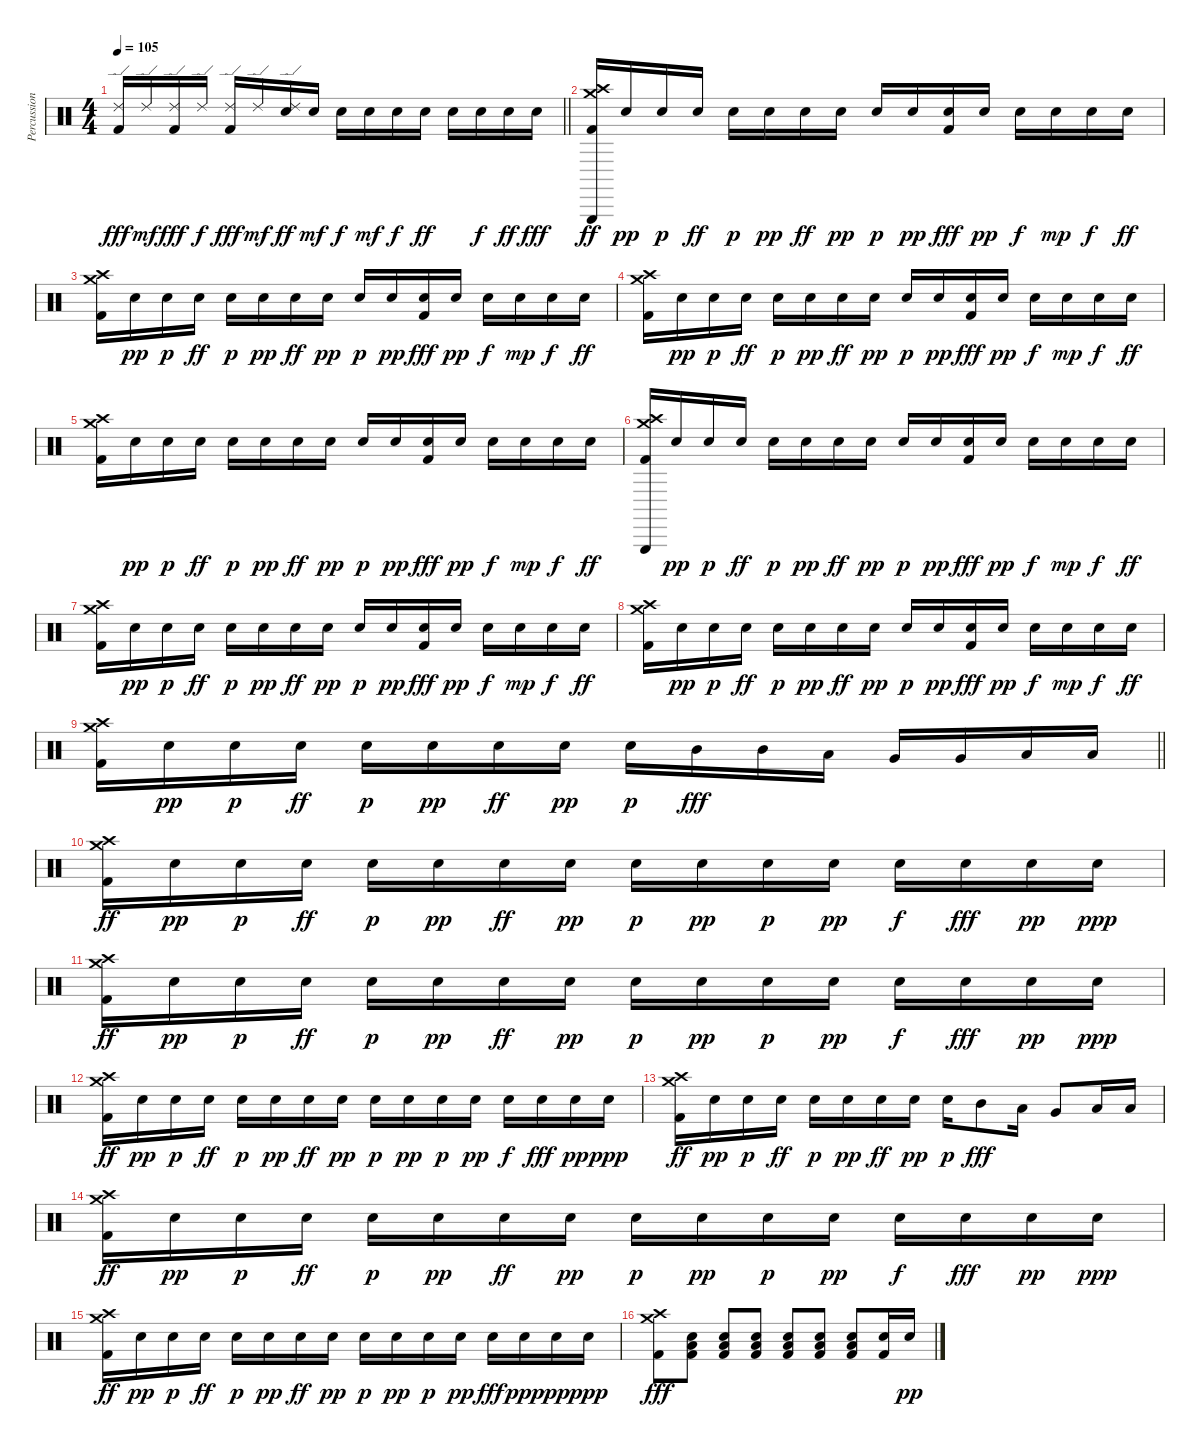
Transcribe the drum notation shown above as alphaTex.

\track ("Percussion" "Percussion") {instrument percussion}
\staff {score}
\articulation defaults
\ts (4 4)
\tempo 105
\clef neutral
\barLineRight lightlight
\ks c
("Ride (edge) 2" "Kick (hit) 2").16{dy fff} "Ride (edge) 2".16{dy mf} ("Ride (edge) 2" "Kick (hit) 2").16{dy fff} "Ride (edge) 2".16{dy f} ("Ride (edge) 2" "Kick (hit) 2").16{dy fff} "Ride (edge) 2".16{dy mf} ("Ride (edge) 2" "Electric Snare (hit)").16{dy ff} "Electric Snare (hit)".16{dy mf} "Electric Snare (hit)".16{dy f} "Electric Snare (hit)".16{dy mf} "Electric Snare (hit)".16{dy f} "Electric Snare (hit)".16{dy ff} "Electric Snare (hit)".16 "Electric Snare (hit)".16{dy f} "Electric Snare (hit)".16{dy ff} "Electric Snare (hit)".16{dy fff} |
("Crash high (hit)" "Crash medium (hit)" "Triangle (hit)" "Kick (hit) 2").16{dy ff} "Electric Snare (hit)".16{dy pp} "Electric Snare (hit)".16{dy p} "Electric Snare (hit)".16{dy ff} "Electric Snare (hit)".16{dy p} "Electric Snare (hit)".16{dy pp} "Electric Snare (hit)".16{dy ff} "Electric Snare (hit)".16{dy pp} "Electric Snare (hit)".16{dy p} "Electric Snare (hit)".16{dy pp} ("Electric Snare (hit)" "Kick (hit) 2").16{dy fff} "Electric Snare (hit)".16{dy pp} "Electric Snare (hit)".16{dy f} "Electric Snare (hit)".16{dy mp} "Electric Snare (hit)".16{dy f} "Electric Snare (hit)".16{dy ff} |
("Crash high (hit)" "Crash medium (hit)" "Kick (hit) 2").16 "Electric Snare (hit)".16{dy pp} "Electric Snare (hit)".16{dy p} "Electric Snare (hit)".16{dy ff} "Electric Snare (hit)".16{dy p} "Electric Snare (hit)".16{dy pp} "Electric Snare (hit)".16{dy ff} "Electric Snare (hit)".16{dy pp} "Electric Snare (hit)".16{dy p} "Electric Snare (hit)".16{dy pp} ("Electric Snare (hit)" "Kick (hit) 2").16{dy fff} "Electric Snare (hit)".16{dy pp} "Electric Snare (hit)".16{dy f} "Electric Snare (hit)".16{dy mp} "Electric Snare (hit)".16{dy f} "Electric Snare (hit)".16{dy ff} |
("Crash high (hit)" "Crash medium (hit)" "Kick (hit) 2").16 "Electric Snare (hit)".16{dy pp} "Electric Snare (hit)".16{dy p} "Electric Snare (hit)".16{dy ff} "Electric Snare (hit)".16{dy p} "Electric Snare (hit)".16{dy pp} "Electric Snare (hit)".16{dy ff} "Electric Snare (hit)".16{dy pp} "Electric Snare (hit)".16{dy p} "Electric Snare (hit)".16{dy pp} ("Electric Snare (hit)" "Kick (hit) 2").16{dy fff} "Electric Snare (hit)".16{dy pp} "Electric Snare (hit)".16{dy f} "Electric Snare (hit)".16{dy mp} "Electric Snare (hit)".16{dy f} "Electric Snare (hit)".16{dy ff} |
("Crash high (hit)" "Crash medium (hit)" "Kick (hit) 2").16 "Electric Snare (hit)".16{dy pp} "Electric Snare (hit)".16{dy p} "Electric Snare (hit)".16{dy ff} "Electric Snare (hit)".16{dy p} "Electric Snare (hit)".16{dy pp} "Electric Snare (hit)".16{dy ff} "Electric Snare (hit)".16{dy pp} "Electric Snare (hit)".16{dy p} "Electric Snare (hit)".16{dy pp} ("Electric Snare (hit)" "Kick (hit) 2").16{dy fff} "Electric Snare (hit)".16{dy pp} "Electric Snare (hit)".16{dy f} "Electric Snare (hit)".16{dy mp} "Electric Snare (hit)".16{dy f} "Electric Snare (hit)".16{dy ff} |
("Crash high (hit)" "Crash medium (hit)" "Triangle (hit)" "Kick (hit) 2").16 "Electric Snare (hit)".16{dy pp} "Electric Snare (hit)".16{dy p} "Electric Snare (hit)".16{dy ff} "Electric Snare (hit)".16{dy p} "Electric Snare (hit)".16{dy pp} "Electric Snare (hit)".16{dy ff} "Electric Snare (hit)".16{dy pp} "Electric Snare (hit)".16{dy p} "Electric Snare (hit)".16{dy pp} ("Electric Snare (hit)" "Kick (hit) 2").16{dy fff} "Electric Snare (hit)".16{dy pp} "Electric Snare (hit)".16{dy f} "Electric Snare (hit)".16{dy mp} "Electric Snare (hit)".16{dy f} "Electric Snare (hit)".16{dy ff} |
("Crash high (hit)" "Crash medium (hit)" "Kick (hit) 2").16 "Electric Snare (hit)".16{dy pp} "Electric Snare (hit)".16{dy p} "Electric Snare (hit)".16{dy ff} "Electric Snare (hit)".16{dy p} "Electric Snare (hit)".16{dy pp} "Electric Snare (hit)".16{dy ff} "Electric Snare (hit)".16{dy pp} "Electric Snare (hit)".16{dy p} "Electric Snare (hit)".16{dy pp} ("Electric Snare (hit)" "Kick (hit) 2").16{dy fff} "Electric Snare (hit)".16{dy pp} "Electric Snare (hit)".16{dy f} "Electric Snare (hit)".16{dy mp} "Electric Snare (hit)".16{dy f} "Electric Snare (hit)".16{dy ff} |
("Crash high (hit)" "Crash medium (hit)" "Kick (hit) 2").16 "Electric Snare (hit)".16{dy pp} "Electric Snare (hit)".16{dy p} "Electric Snare (hit)".16{dy ff} "Electric Snare (hit)".16{dy p} "Electric Snare (hit)".16{dy pp} "Electric Snare (hit)".16{dy ff} "Electric Snare (hit)".16{dy pp} "Electric Snare (hit)".16{dy p} "Electric Snare (hit)".16{dy pp} ("Electric Snare (hit)" "Kick (hit) 2").16{dy fff} "Electric Snare (hit)".16{dy pp} "Electric Snare (hit)".16{dy f} "Electric Snare (hit)".16{dy mp} "Electric Snare (hit)".16{dy f} "Electric Snare (hit)".16{dy ff} |
\barLineRight lightlight
("Crash high (hit)" "Crash medium (hit)" "Kick (hit) 2").16 "Electric Snare (hit)".16{dy pp} "Electric Snare (hit)".16{dy p} "Electric Snare (hit)".16{dy ff} "Electric Snare (hit)".16{dy p} "Electric Snare (hit)".16{dy pp} "Electric Snare (hit)".16{dy ff} "Electric Snare (hit)".16{dy pp} "Electric Snare (hit)".16{dy p} "Mid Tom (hit)".16{dy fff} "Mid Tom (hit)".16 "Low Tom (hit)".16 "Very Low Tom (hit)".16 "Very Low Tom (hit)".16 "Low Floor Tom (hit)".16 "Low Floor Tom (hit)".16 |
("Crash high (hit)" "Crash medium (hit)" "Kick (hit) 2").16{dy ff} "Electric Snare (hit)".16{dy pp} "Electric Snare (hit)".16{dy p} "Electric Snare (hit)".16{dy ff} "Electric Snare (hit)".16{dy p} "Electric Snare (hit)".16{dy pp} "Electric Snare (hit)".16{dy ff} "Electric Snare (hit)".16{dy pp} "Electric Snare (hit)".16{dy p} "Electric Snare (hit)".16{dy pp} "Electric Snare (hit)".16{dy p} "Electric Snare (hit)".16{dy pp} "Electric Snare (hit)".16{dy f} "Electric Snare (hit)".16{dy fff} "Electric Snare (hit)".16{dy pp} "Electric Snare (hit)".16{dy ppp} |
("Crash high (hit)" "Crash medium (hit)" "Kick (hit) 2").16{dy ff} "Electric Snare (hit)".16{dy pp} "Electric Snare (hit)".16{dy p} "Electric Snare (hit)".16{dy ff} "Electric Snare (hit)".16{dy p} "Electric Snare (hit)".16{dy pp} "Electric Snare (hit)".16{dy ff} "Electric Snare (hit)".16{dy pp} "Electric Snare (hit)".16{dy p} "Electric Snare (hit)".16{dy pp} "Electric Snare (hit)".16{dy p} "Electric Snare (hit)".16{dy pp} "Electric Snare (hit)".16{dy f} "Electric Snare (hit)".16{dy fff} "Electric Snare (hit)".16{dy pp} "Electric Snare (hit)".16{dy ppp} |
("Crash high (hit)" "Crash medium (hit)" "Kick (hit) 2").16{dy ff} "Electric Snare (hit)".16{dy pp} "Electric Snare (hit)".16{dy p} "Electric Snare (hit)".16{dy ff} "Electric Snare (hit)".16{dy p} "Electric Snare (hit)".16{dy pp} "Electric Snare (hit)".16{dy ff} "Electric Snare (hit)".16{dy pp} "Electric Snare (hit)".16{dy p} "Electric Snare (hit)".16{dy pp} "Electric Snare (hit)".16{dy p} "Electric Snare (hit)".16{dy pp} "Electric Snare (hit)".16{dy f} "Electric Snare (hit)".16{dy fff} "Electric Snare (hit)".16{dy pp} "Electric Snare (hit)".16{dy ppp} |
("Crash high (hit)" "Crash medium (hit)" "Kick (hit) 2").16{dy ff} "Electric Snare (hit)".16{dy pp} "Electric Snare (hit)".16{dy p} "Electric Snare (hit)".16{dy ff} "Electric Snare (hit)".16{dy p} "Electric Snare (hit)".16{dy pp} "Electric Snare (hit)".16{dy ff} "Electric Snare (hit)".16{dy pp} "Electric Snare (hit)".16{dy p} "Mid Tom (hit)".8{dy fff} "Low Tom (hit)".16 "Very Low Tom (hit)".8 "Low Floor Tom (hit)".16 "Low Floor Tom (hit)".16 |
("Crash high (hit)" "Crash medium (hit)" "Kick (hit) 2").16{dy ff} "Electric Snare (hit)".16{dy pp} "Electric Snare (hit)".16{dy p} "Electric Snare (hit)".16{dy ff} "Electric Snare (hit)".16{dy p} "Electric Snare (hit)".16{dy pp} "Electric Snare (hit)".16{dy ff} "Electric Snare (hit)".16{dy pp} "Electric Snare (hit)".16{dy p} "Electric Snare (hit)".16{dy pp} "Electric Snare (hit)".16{dy p} "Electric Snare (hit)".16{dy pp} "Electric Snare (hit)".16{dy f} "Electric Snare (hit)".16{dy fff} "Electric Snare (hit)".16{dy pp} "Electric Snare (hit)".16{dy ppp} |
("Crash high (hit)" "Crash medium (hit)" "Kick (hit) 2").16{dy ff} "Electric Snare (hit)".16{dy pp} "Electric Snare (hit)".16{dy p} "Electric Snare (hit)".16{dy ff} "Electric Snare (hit)".16{dy p} "Electric Snare (hit)".16{dy pp} "Electric Snare (hit)".16{dy ff} "Electric Snare (hit)".16{dy pp} "Electric Snare (hit)".16{dy p} "Electric Snare (hit)".16{dy pp} "Electric Snare (hit)".16{dy p} "Electric Snare (hit)".16{dy pp} "Electric Snare (hit)".16{dy fff} "Electric Snare (hit)".16{dy ppp} "Electric Snare (hit)".16{dy pp} "Electric Snare (hit)".16{dy ppp} |
("Crash high (hit)" "Crash medium (hit)" "Kick (hit) 2").8{dy fff} ("Electric Snare (hit)" "Low Floor Tom (hit)" "Kick (hit) 2").8 ("Electric Snare (hit)" "Low Floor Tom (hit)" "Kick (hit) 2").8 ("Electric Snare (hit)" "Low Floor Tom (hit)" "Kick (hit) 2").8 ("Electric Snare (hit)" "Low Floor Tom (hit)" "Kick (hit) 2").8 ("Electric Snare (hit)" "Low Floor Tom (hit)" "Kick (hit) 2").8 ("Electric Snare (hit)" "Low Floor Tom (hit)" "Kick (hit) 2").8 ("Electric Snare (hit)" "Kick (hit) 2").16 "Electric Snare (hit)".16{dy pp}
